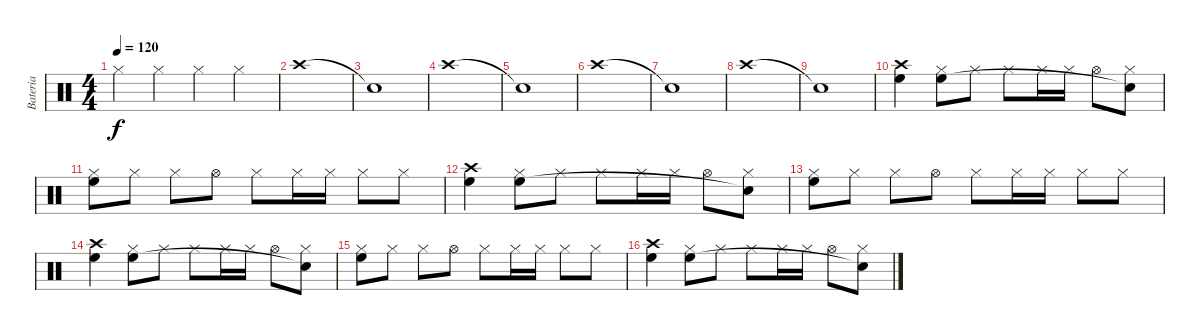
\track ("Bateria" "Bateria") {instrument percussion}
\staff {score}
\articulation defaults
\ts (4 4)
\tempo 120
\clef neutral
\ks c "Hi-Hat (closed)".4{dy f} "Hi-Hat (closed)".4 "Hi-Hat (closed)".4 "Hi-Hat (closed)".4
|
"Crash high (hit)".1 |
"Snare (hit)"{t}.1 |
"Crash high (hit)".1 |
"Snare (hit)"{t}.1 |
"Crash high (hit)".1 |
"Snare (hit)"{t}.1 |
"Crash high (hit)".1 |
"Snare (hit)"{t}.1 |
("Crash high (hit)" "High Floor Tom (hit)").4 ("Hi-Hat (closed)" "High Floor Tom (hit)").8 "Hi-Hat (closed)".8 "Hi-Hat (closed)".8 "Hi-Hat (closed)".16 "Hi-Hat (closed)".16 "Hi-Hat (open)".8 ("Hi-Hat (closed)" "Snare (hit)"{t}).8 |
("Hi-Hat (closed)" "High Floor Tom (hit)").8 "Hi-Hat (closed)".8 "Hi-Hat (closed)".8 "Hi-Hat (open)".8 "Hi-Hat (closed)".8 "Hi-Hat (closed)".16 "Hi-Hat (closed)".16 "Hi-Hat (closed)".8 "Hi-Hat (closed)".8 |
("Crash high (hit)" "High Floor Tom (hit)").4 ("Hi-Hat (closed)" "High Floor Tom (hit)").8 "Hi-Hat (closed)".8 "Hi-Hat (closed)".8 "Hi-Hat (closed)".16 "Hi-Hat (closed)".16 "Hi-Hat (open)".8 ("Hi-Hat (closed)" "Snare (hit)"{t}).8 |
("Hi-Hat (closed)" "High Floor Tom (hit)").8 "Hi-Hat (closed)".8 "Hi-Hat (closed)".8 "Hi-Hat (open)".8 "Hi-Hat (closed)".8 "Hi-Hat (closed)".16 "Hi-Hat (closed)".16 "Hi-Hat (closed)".8 "Hi-Hat (closed)".8 |
("Crash high (hit)" "High Floor Tom (hit)").4 ("Hi-Hat (closed)" "High Floor Tom (hit)").8 "Hi-Hat (closed)".8 "Hi-Hat (closed)".8 "Hi-Hat (closed)".16 "Hi-Hat (closed)".16 "Hi-Hat (open)".8 ("Hi-Hat (closed)" "Snare (hit)"{t}).8 |
("Hi-Hat (closed)" "High Floor Tom (hit)").8 "Hi-Hat (closed)".8 "Hi-Hat (closed)".8 "Hi-Hat (open)".8 "Hi-Hat (closed)".8 "Hi-Hat (closed)".16 "Hi-Hat (closed)".16 "Hi-Hat (closed)".8 "Hi-Hat (closed)".8 |
("Crash high (hit)" "High Floor Tom (hit)").4 ("Hi-Hat (closed)" "High Floor Tom (hit)").8 "Hi-Hat (closed)".8 "Hi-Hat (closed)".8 "Hi-Hat (closed)".16 "Hi-Hat (closed)".16 "Hi-Hat (open)".8 ("Hi-Hat (closed)" "Snare (hit)"{t}).8
